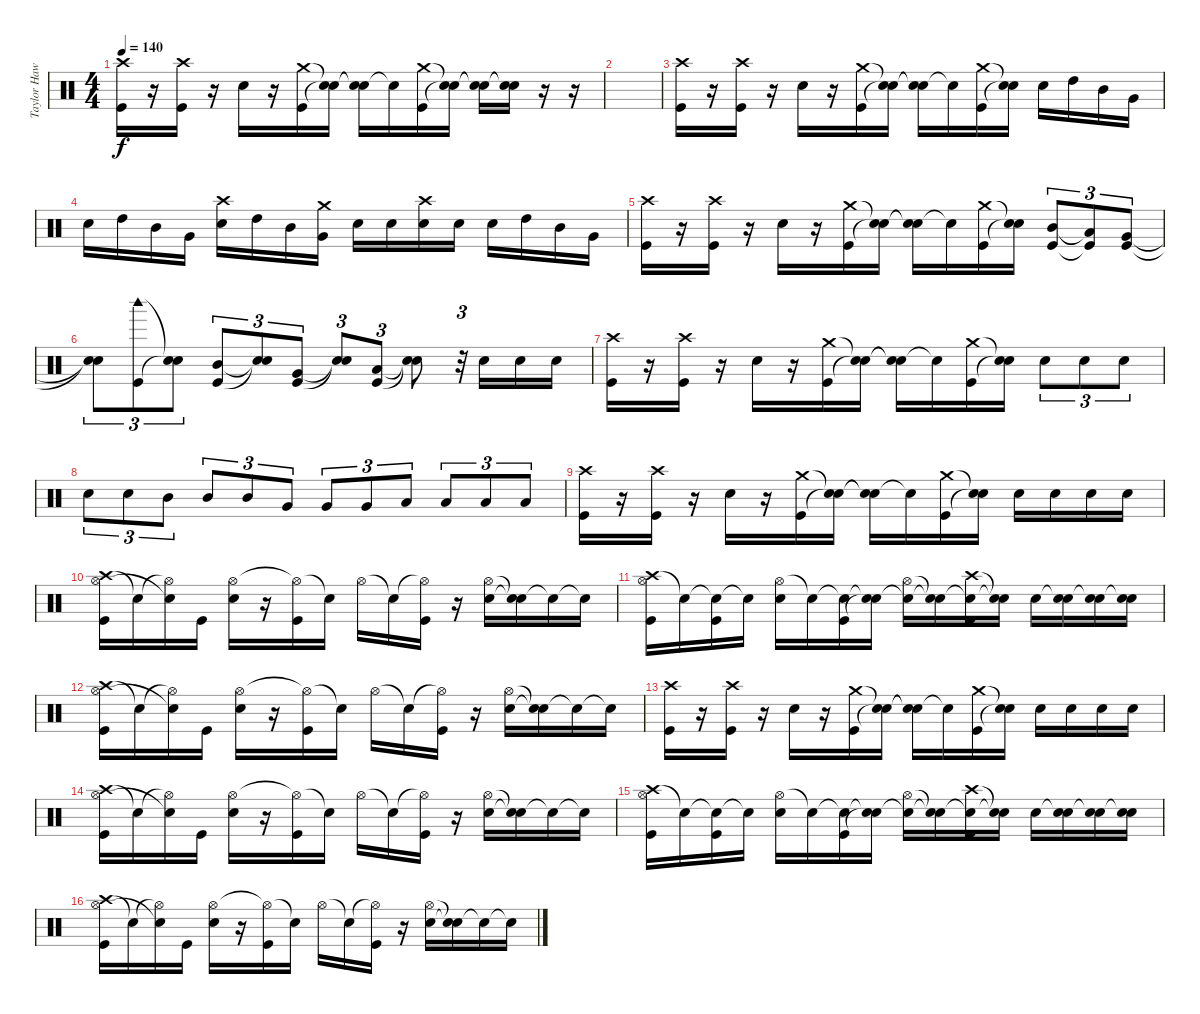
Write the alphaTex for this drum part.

\track ("Taylor Hawkings (Batería)" "Taylor Haw") {instrument percussion}
\staff {score}
\articulation defaults
\ts (4 4)
\tempo 140
\clef neutral
\ks c
("Crash high (hit)" "Kick (hit)").16{dy f} r.16 ("Crash high (hit)" "Kick (hit)").16 r.16 "Electric Snare (hit)".16 r.16 ("Crash medium (hit)" "Kick (hit)").16 ("Snare (hit)"{t} "Snare (hit)"{t}).16 ("Snare (hit)"{t} "Snare (hit)"{t}).16 "Snare (hit)"{t}.16 ("Crash medium (hit)" "Kick (hit)").16 ("Snare (hit)"{t} "Snare (hit)"{t}).16 ("Snare (hit)"{t} "Snare (hit)"{t}).16 ("Snare (hit)"{t} "Snare (hit)"{t}).16 r.16 r.16 |
|
("Crash high (hit)" "Kick (hit)").16 r.16 ("Crash high (hit)" "Kick (hit)").16 r.16 "Electric Snare (hit)".16 r.16 ("Crash medium (hit)" "Kick (hit)").16 ("Snare (hit)"{t} "Snare (hit)"{t}).16 ("Snare (hit)"{t} "Snare (hit)"{t}).16 "Snare (hit)"{t}.16 ("Crash medium (hit)" "Kick (hit)").16 ("Snare (hit)"{t} "Snare (hit)"{t}).16 "Electric Snare (hit)".16 "High Tom (hit)".16 "Mid Tom (hit)".16 "Very Low Tom (hit)".16 |
"Electric Snare (hit)".16 "High Tom (hit)".16 "Mid Tom (hit)".16 "Very Low Tom (hit)".16 ("Crash high (hit)" "Electric Snare (hit)").16 "High Tom (hit)".16 "Mid Tom (hit)".16 ("Crash medium (hit)" "Very Low Tom (hit)").16 "Electric Snare (hit)".16 "Electric Snare (hit)".16 ("Crash high (hit)" "Electric Snare (hit)").16 "Electric Snare (hit)".16 "Electric Snare (hit)".16 "High Tom (hit)".16 "Mid Tom (hit)".16 "Very Low Tom (hit)".16 |
("Crash high (hit)" "Kick (hit)").16 r.16 ("Crash high (hit)" "Kick (hit)").16 r.16 "Electric Snare (hit)".16 r.16 ("Crash medium (hit)" "Kick (hit)").16 ("Snare (hit)"{t} "Snare (hit)"{t}).16 ("Snare (hit)"{t} "Snare (hit)"{t}).16 "Snare (hit)"{t}.16 ("Crash medium (hit)" "Kick (hit)").16 ("Snare (hit)"{t} "Snare (hit)"{t}).16 ("Mid Tom (hit)" "Kick (hit)").8{tu (3 2)} ("Low Tom (hit)"{t} "Kick (hit)"{t}).8{tu (3 2)} ("Very Low Tom (hit)" "Kick (hit)").8{tu (3 2)} |
("Snare (hit)"{t} "Snare (hit)"{t}).8{tu (3 2)} ("Woodblock high (hit)" "Kick (hit)").8{tu (3 2)} ("Snare (hit)"{t} "Snare (hit)"{t}).8{tu (3 2)} ("Mid Tom (hit)" "Kick (hit)").8{tu (3 2)} ("Snare (hit)"{t} "Snare (hit)"{t}).8{tu (3 2)} ("Very Low Tom (hit)" "Kick (hit)").8{tu (3 2)} ("Snare (hit)"{t} "Snare (hit)"{t}).8{tu (3 2)} ("Low Floor Tom (hit)" "Kick (hit)").8{tu (3 2)} ("Snare (hit)"{t} "Snare (hit)"{t}).8 r.32{tu (3 2)} "Electric Snare (hit)".16 "Electric Snare (hit)".16 "Electric Snare (hit)".16 |
("Crash high (hit)" "Kick (hit)").16 r.16 ("Crash high (hit)" "Kick (hit)").16 r.16 "Electric Snare (hit)".16 r.16 ("Crash medium (hit)" "Kick (hit)").16 ("Snare (hit)"{t} "Snare (hit)"{t}).16 ("Snare (hit)"{t} "Snare (hit)"{t}).16 "Snare (hit)"{t}.16 ("Crash medium (hit)" "Kick (hit)").16 ("Snare (hit)"{t} "Snare (hit)"{t}).16 "Electric Snare (hit)".8{tu (3 2)} "Electric Snare (hit)".8{tu (3 2)} "Electric Snare (hit)".8{tu (3 2)} |
"Electric Snare (hit)".8{tu (3 2)} "Electric Snare (hit)".8{tu (3 2)} "Mid Tom (hit)".8{tu (3 2)} "Mid Tom (hit)".8{tu (3 2)} "Mid Tom (hit)".8{tu (3 2)} "Very Low Tom (hit)".8{tu (3 2)} "Very Low Tom (hit)".8{tu (3 2)} "Very Low Tom (hit)".8{tu (3 2)} "Low Floor Tom (hit)".8{tu (3 2)} "Low Floor Tom (hit)".8{tu (3 2)} "Low Floor Tom (hit)".8{tu (3 2)} "Low Floor Tom (hit)".8{tu (3 2)} |
("Crash high (hit)" "Kick (hit)").16 r.16 ("Crash high (hit)" "Kick (hit)").16 r.16 "Electric Snare (hit)".16 r.16 ("Crash medium (hit)" "Kick (hit)").16 ("Snare (hit)"{t} "Snare (hit)"{t}).16 ("Snare (hit)"{t} "Snare (hit)"{t}).16 "Snare (hit)"{t}.16 ("Crash medium (hit)" "Kick (hit)").16 ("Snare (hit)"{t} "Snare (hit)"{t}).16 "Electric Snare (hit)".16 "Electric Snare (hit)".16 "Electric Snare (hit)".16 "Electric Snare (hit)".16 |
("Crash high (hit)" "Hi-Hat (open)" "Kick (hit)").16 "Snare (hit)"{t}.16 ("Hi-Hat (open)"{t} "Snare (hit)"{t}).16 "Kick (hit)".16 ("Hi-Hat (open)" "Electric Snare (hit)").16 r.16 ("Hi-Hat (open)"{t} "Kick (hit)").16 "Snare (hit)"{t}.16 "Hi-Hat (open)".16 "Snare (hit)"{t}.16 ("Hi-Hat (open)"{t} "Kick (hit)").16 r.16 ("Hi-Hat (open)" "Electric Snare (hit)").16 ("Snare (hit)"{t} "Electric Snare (hit)"{t}).16 "Snare (hit)"{t}.16 "Snare (hit)"{t}.16 |
("Crash high (hit)" "Hi-Hat (open)" "Kick (hit)").16 "Snare (hit)"{t}.16 ("Snare (hit)"{t} "Kick (hit)").16 "Snare (hit)"{t}.16 ("Hi-Hat (open)" "Electric Snare (hit)").16 "Snare (hit)"{t}.16 ("Snare (hit)"{t} "Kick (hit)").16 ("Snare (hit)"{t} "Snare (hit)"{t}).16 ("Hi-Hat (open)" "Snare (hit)"{t}).16 ("Snare (hit)"{t} "Snare (hit)"{t}).16 ("Crash high (hit)" "Snare (hit)"{t} "Kick (hit)").16 ("Snare (hit)"{t} "Snare (hit)"{t}).16 "Electric Snare (hit)".16 ("Snare (hit)"{t} "Electric Snare (hit)").16 ("Snare (hit)"{t} "Electric Snare (hit)").16 ("Snare (hit)"{t} "Electric Snare (hit)").16 |
("Crash high (hit)" "Hi-Hat (open)" "Kick (hit)").16 "Snare (hit)"{t}.16 ("Hi-Hat (open)"{t} "Snare (hit)"{t}).16 "Kick (hit)".16 ("Hi-Hat (open)" "Electric Snare (hit)").16 r.16 ("Hi-Hat (open)"{t} "Kick (hit)").16 "Snare (hit)"{t}.16 "Hi-Hat (open)".16 "Snare (hit)"{t}.16 ("Hi-Hat (open)"{t} "Kick (hit)").16 r.16 ("Hi-Hat (open)" "Electric Snare (hit)").16 ("Snare (hit)"{t} "Electric Snare (hit)"{t}).16 "Snare (hit)"{t}.16 "Snare (hit)"{t}.16 |
("Crash high (hit)" "Kick (hit)").16 r.16 ("Crash high (hit)" "Kick (hit)").16 r.16 "Electric Snare (hit)".16 r.16 ("Crash medium (hit)" "Kick (hit)").16 ("Snare (hit)"{t} "Snare (hit)"{t}).16 ("Snare (hit)"{t} "Snare (hit)"{t}).16 "Snare (hit)"{t}.16 ("Crash medium (hit)" "Kick (hit)").16 ("Snare (hit)"{t} "Snare (hit)"{t}).16 "Electric Snare (hit)".16 "Electric Snare (hit)".16 "Electric Snare (hit)".16 "Electric Snare (hit)".16 |
("Crash high (hit)" "Hi-Hat (open)" "Kick (hit)").16 "Snare (hit)"{t}.16 ("Hi-Hat (open)"{t} "Snare (hit)"{t}).16 "Kick (hit)".16 ("Hi-Hat (open)" "Electric Snare (hit)").16 r.16 ("Hi-Hat (open)"{t} "Kick (hit)").16 "Snare (hit)"{t}.16 "Hi-Hat (open)".16 "Snare (hit)"{t}.16 ("Hi-Hat (open)"{t} "Kick (hit)").16 r.16 ("Hi-Hat (open)" "Electric Snare (hit)").16 ("Snare (hit)"{t} "Electric Snare (hit)"{t}).16 "Snare (hit)"{t}.16 "Snare (hit)"{t}.16 |
("Crash high (hit)" "Hi-Hat (open)" "Kick (hit)").16 "Snare (hit)"{t}.16 ("Snare (hit)"{t} "Kick (hit)").16 "Snare (hit)"{t}.16 ("Hi-Hat (open)" "Electric Snare (hit)").16 "Snare (hit)"{t}.16 ("Snare (hit)"{t} "Kick (hit)").16 ("Snare (hit)"{t} "Snare (hit)"{t}).16 ("Hi-Hat (open)" "Snare (hit)"{t}).16 ("Snare (hit)"{t} "Snare (hit)"{t}).16 ("Crash high (hit)" "Snare (hit)"{t} "Kick (hit)").16 ("Snare (hit)"{t} "Snare (hit)"{t}).16 "Electric Snare (hit)".16 ("Snare (hit)"{t} "Electric Snare (hit)").16 ("Snare (hit)"{t} "Electric Snare (hit)").16 ("Snare (hit)"{t} "Electric Snare (hit)").16 |
("Crash high (hit)" "Hi-Hat (open)" "Kick (hit)").16 "Snare (hit)"{t}.16 ("Hi-Hat (open)"{t} "Snare (hit)"{t}).16 "Kick (hit)".16 ("Hi-Hat (open)" "Electric Snare (hit)").16 r.16 ("Hi-Hat (open)"{t} "Kick (hit)").16 "Snare (hit)"{t}.16 "Hi-Hat (open)".16 "Snare (hit)"{t}.16 ("Hi-Hat (open)"{t} "Kick (hit)").16 r.16 ("Hi-Hat (open)" "Electric Snare (hit)").16 ("Snare (hit)"{t} "Electric Snare (hit)"{t}).16 "Snare (hit)"{t}.16 "Snare (hit)"{t}.16
